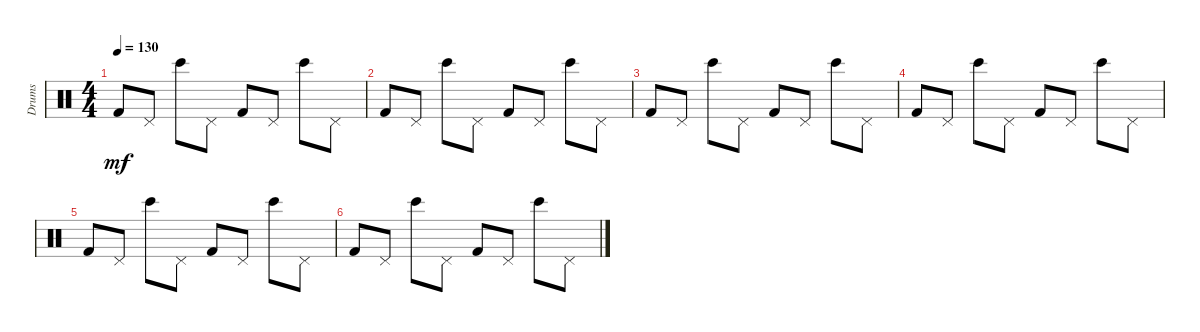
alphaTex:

\track ("Drums" "Drums") {instrument percussion}
\staff {score}
\articulation defaults
\ts (4 4)
\tempo 130
\clef neutral
\ks c "Kick (hit) 2".8{dy mf} "Pedal Hi-Hat (hit)".8 "Bongo High (hit)".8 "Pedal Hi-Hat (hit)".8 "Kick (hit) 2".8 "Pedal Hi-Hat (hit)".8 "Bongo High (hit)".8 "Pedal Hi-Hat (hit)".8
|
"Kick (hit) 2".8 "Pedal Hi-Hat (hit)".8 "Bongo High (hit)".8 "Pedal Hi-Hat (hit)".8 "Kick (hit) 2".8 "Pedal Hi-Hat (hit)".8 "Bongo High (hit)".8 "Pedal Hi-Hat (hit)".8 |
"Kick (hit) 2".8 "Pedal Hi-Hat (hit)".8 "Bongo High (hit)".8 "Pedal Hi-Hat (hit)".8 "Kick (hit) 2".8 "Pedal Hi-Hat (hit)".8 "Bongo High (hit)".8 "Pedal Hi-Hat (hit)".8 |
"Kick (hit) 2".8 "Pedal Hi-Hat (hit)".8 "Bongo High (hit)".8 "Pedal Hi-Hat (hit)".8 "Kick (hit) 2".8 "Pedal Hi-Hat (hit)".8 "Bongo High (hit)".8 "Pedal Hi-Hat (hit)".8 |
"Kick (hit) 2".8 "Pedal Hi-Hat (hit)".8 "Bongo High (hit)".8 "Pedal Hi-Hat (hit)".8 "Kick (hit) 2".8 "Pedal Hi-Hat (hit)".8 "Bongo High (hit)".8 "Pedal Hi-Hat (hit)".8 |
"Kick (hit) 2".8 "Pedal Hi-Hat (hit)".8 "Bongo High (hit)".8 "Pedal Hi-Hat (hit)".8 "Kick (hit) 2".8 "Pedal Hi-Hat (hit)".8 "Bongo High (hit)".8 "Pedal Hi-Hat (hit)".8
